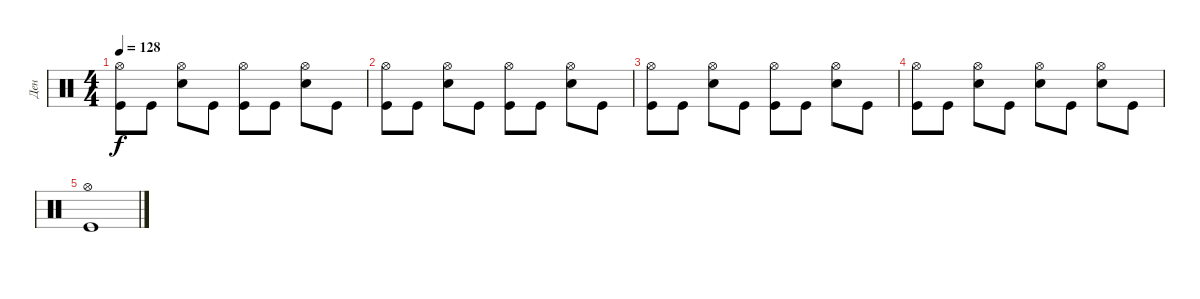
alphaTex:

\track ("Ден" "Ден") {instrument percussion}
\staff
\articulation defaults
\ts (4 4)
\tempo 128
\clef neutral
\ks c
("Kick (hit)" "Hi-Hat (open)").8{dy f} "Kick (hit)".8 ("Snare (hit) 2" "Hi-Hat (open)").8 "Kick (hit)".8 ("Kick (hit)" "Hi-Hat (open)").8 "Kick (hit)".8 ("Snare (hit) 2" "Hi-Hat (open)").8 "Kick (hit)".8 |
("Kick (hit)" "Hi-Hat (open)").8 "Kick (hit)".8 ("Snare (hit) 2" "Hi-Hat (open)").8 "Kick (hit)".8 ("Kick (hit)" "Hi-Hat (open)").8 "Kick (hit)".8 ("Snare (hit) 2" "Hi-Hat (open)").8 "Kick (hit)".8 |
("Kick (hit)" "Hi-Hat (open)").8 "Kick (hit)".8 ("Snare (hit) 2" "Hi-Hat (open)").8 "Kick (hit)".8 ("Kick (hit)" "Hi-Hat (open)").8 "Kick (hit)".8 ("Snare (hit) 2" "Hi-Hat (open)").8 "Kick (hit)".8 |
("Kick (hit)" "Hi-Hat (open)").8 "Kick (hit)".8 ("Snare (hit) 2" "Hi-Hat (open)").8 "Kick (hit)".8 ("Snare (hit) 2" "Hi-Hat (open)").8 "Kick (hit)".8 ("Snare (hit) 2" "Hi-Hat (open)").8 "Kick (hit)".8 |
("Hi-Hat (open)" "Kick (hit)").1
